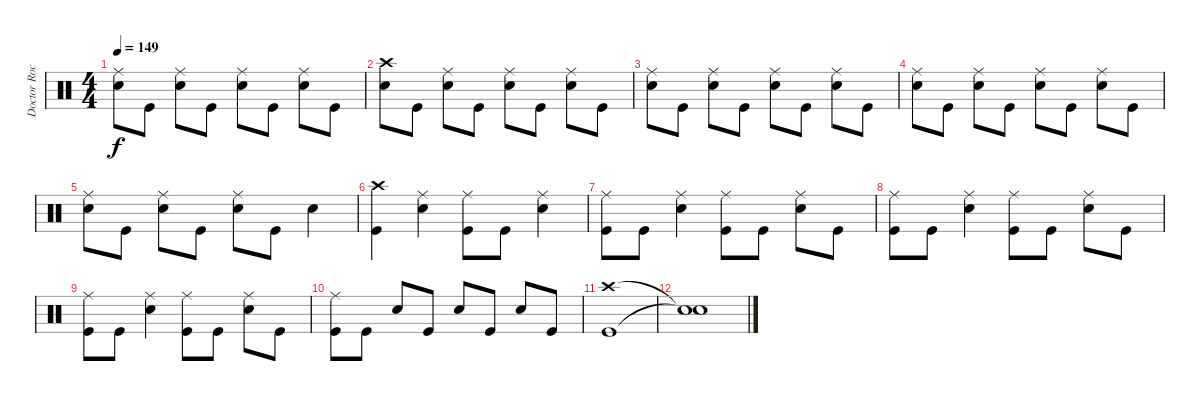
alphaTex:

\track ("Doctor Rock" "Doctor Roc") {instrument percussion}
\staff {score}
\articulation defaults
\ts (4 4)
\tempo 149
\clef neutral
\ks c
("Ride (middle)" "Snare (hit) 2").8{dy f} "Kick (hit)".8 ("Ride (middle)" "Snare (hit) 2").8 "Kick (hit)".8 ("Ride (middle)" "Snare (hit) 2").8 "Kick (hit)".8 ("Ride (middle)" "Snare (hit) 2").8 "Kick (hit)".8 |
("Crash high (hit)" "Snare (hit) 2").8 "Kick (hit)".8 ("Ride (middle)" "Snare (hit) 2").8 "Kick (hit)".8 ("Ride (middle)" "Snare (hit) 2").8 "Kick (hit)".8 ("Ride (middle)" "Snare (hit) 2").8 "Kick (hit)".8 |
("Ride (middle)" "Snare (hit) 2").8 "Kick (hit)".8 ("Ride (middle)" "Snare (hit) 2").8 "Kick (hit)".8 ("Ride (middle)" "Snare (hit) 2").8 "Kick (hit)".8 ("Ride (middle)" "Snare (hit) 2").8 "Kick (hit)".8 |
("Ride (middle)" "Snare (hit) 2").8 "Kick (hit)".8 ("Ride (middle)" "Snare (hit) 2").8 "Kick (hit)".8 ("Ride (middle)" "Snare (hit) 2").8 "Kick (hit)".8 ("Ride (middle)" "Snare (hit) 2").8 "Kick (hit)".8 |
("Ride (middle)" "Snare (hit) 2").8 "Kick (hit)".8 ("Ride (middle)" "Snare (hit) 2").8 "Kick (hit)".8 ("Ride (middle)" "Snare (hit) 2").8 "Kick (hit)".8 "Snare (hit) 2".4 |
("Crash high (hit)" "Kick (hit)").4 ("Ride (middle)" "Snare (hit) 2").4 ("Ride (middle)" "Kick (hit)").8 "Kick (hit)".8 ("Ride (middle)" "Snare (hit) 2").4 |
("Ride (middle)" "Kick (hit)").8 "Kick (hit)".8 ("Ride (middle)" "Snare (hit) 2").4 ("Ride (middle)" "Kick (hit)").8 "Kick (hit)".8 ("Ride (middle)" "Snare (hit) 2").8 "Kick (hit)".8 |
("Ride (middle)" "Kick (hit)").8 "Kick (hit)".8 ("Ride (middle)" "Snare (hit) 2").4 ("Ride (middle)" "Kick (hit)").8 "Kick (hit)".8 ("Ride (middle)" "Snare (hit) 2").8 "Kick (hit)".8 |
("Ride (middle)" "Kick (hit)").8 "Kick (hit)".8 ("Ride (middle)" "Snare (hit) 2").4 ("Ride (middle)" "Kick (hit)").8 "Kick (hit)".8 ("Ride (middle)" "Snare (hit) 2").8 "Kick (hit)".8 |
("Ride (middle)" "Kick (hit)").8 "Kick (hit)".8 "Snare (hit) 2".8 "Kick (hit)".8 "Snare (hit) 2".8 "Kick (hit)".8 "Snare (hit) 2".8 "Kick (hit)".8 |
("Crash high (hit)" "Kick (hit)").1 |
("Snare (hit)"{t} "Snare (hit)"{t}).1
